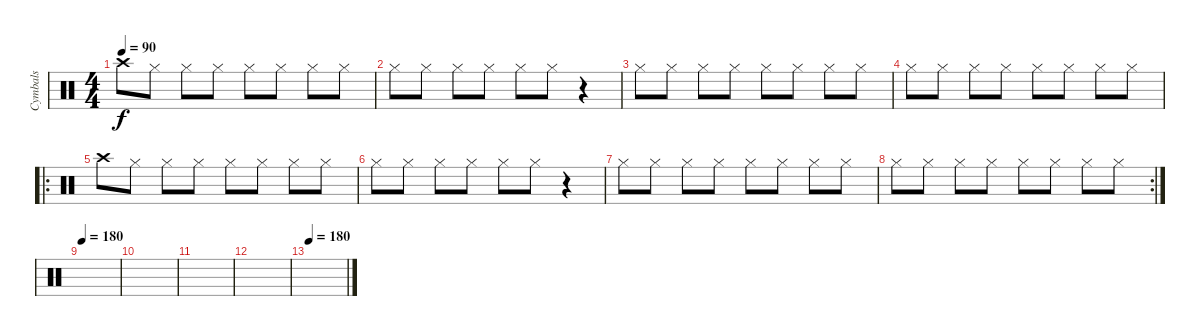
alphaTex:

\track ("Cymbals" "Cymbals") {instrument percussion}
\staff {score}
\articulation defaults
\ts (4 4)
\tempo 90
\clef neutral
\ks c "Crash high (hit)".8{dy f} "Hi-Hat (closed)".8 "Hi-Hat (closed)".8 "Hi-Hat (closed)".8 "Hi-Hat (closed)".8 "Hi-Hat (closed)".8 "Hi-Hat (closed)".8 "Hi-Hat (closed)".8
|
"Hi-Hat (closed)".8 "Hi-Hat (closed)".8 "Hi-Hat (closed)".8 "Hi-Hat (closed)".8 "Hi-Hat (closed)".8 "Hi-Hat (closed)".8 r.4 |
"Hi-Hat (closed)".8 "Hi-Hat (closed)".8 "Hi-Hat (closed)".8 "Hi-Hat (closed)".8 "Hi-Hat (closed)".8 "Hi-Hat (closed)".8 "Hi-Hat (closed)".8 "Hi-Hat (closed)".8 |
"Hi-Hat (closed)".8 "Hi-Hat (closed)".8 "Hi-Hat (closed)".8 "Hi-Hat (closed)".8 "Hi-Hat (closed)".8 "Hi-Hat (closed)".8 "Hi-Hat (closed)".8 "Hi-Hat (closed)".8 |
\ro "Crash high (hit)".8 "Hi-Hat (closed)".8 "Hi-Hat (closed)".8 "Hi-Hat (closed)".8 "Hi-Hat (closed)".8 "Hi-Hat (closed)".8 "Hi-Hat (closed)".8 "Hi-Hat (closed)".8
|
"Hi-Hat (closed)".8 "Hi-Hat (closed)".8 "Hi-Hat (closed)".8 "Hi-Hat (closed)".8 "Hi-Hat (closed)".8 "Hi-Hat (closed)".8 r.4 |
"Hi-Hat (closed)".8 "Hi-Hat (closed)".8 "Hi-Hat (closed)".8 "Hi-Hat (closed)".8 "Hi-Hat (closed)".8 "Hi-Hat (closed)".8 "Hi-Hat (closed)".8 "Hi-Hat (closed)".8 |
\rc 2 "Hi-Hat (closed)".8 "Hi-Hat (closed)".8 "Hi-Hat (closed)".8 "Hi-Hat (closed)".8 "Hi-Hat (closed)".8 "Hi-Hat (closed)".8 "Hi-Hat (closed)".8 "Hi-Hat (closed)".8
|
\tempo 180
|
|
|
|
\tempo 180
